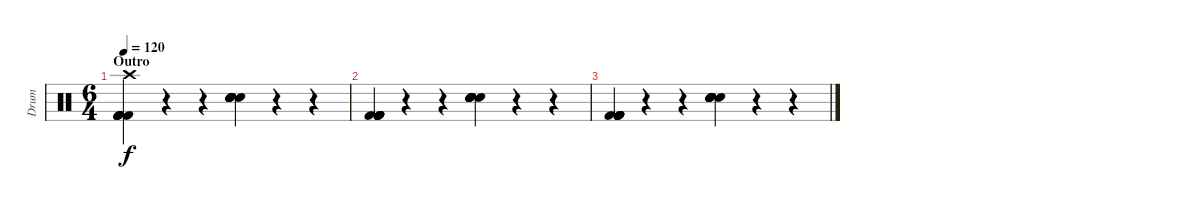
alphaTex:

\track ("Drum" "Drum") {instrument percussion}
\staff {score}
\articulation defaults
\ts (6 4)
\section ("" "Outro")
\tempo 120
\clef neutral
\ks c
("Kick (hit) 2" "Kick (hit) 2" "Kick (hit) 2" "Kick (hit) 2" "Kick (hit) 2" "Crash high (hit)").4{dy f} r.4 r.4 ("Electric Snare (hit)" "Electric Snare (hit)" "Electric Snare (hit)" "Electric Snare (hit)" "Electric Snare (hit)" "Electric Snare (hit)").4 r.4 r.4 |
("Kick (hit) 2" "Kick (hit) 2" "Kick (hit) 2" "Kick (hit) 2" "Kick (hit) 2" "Kick (hit) 2").4 r.4 r.4 ("Electric Snare (hit)" "Electric Snare (hit)" "Electric Snare (hit)" "Electric Snare (hit)" "Electric Snare (hit)" "Electric Snare (hit)").4 r.4 r.4 |
("Kick (hit) 2" "Kick (hit) 2" "Kick (hit) 2" "Kick (hit) 2" "Kick (hit) 2" "Kick (hit) 2").4 r.4 r.4 ("Electric Snare (hit)" "Electric Snare (hit)" "Electric Snare (hit)" "Electric Snare (hit)" "Electric Snare (hit)" "Electric Snare (hit)").4 r.4 r.4
